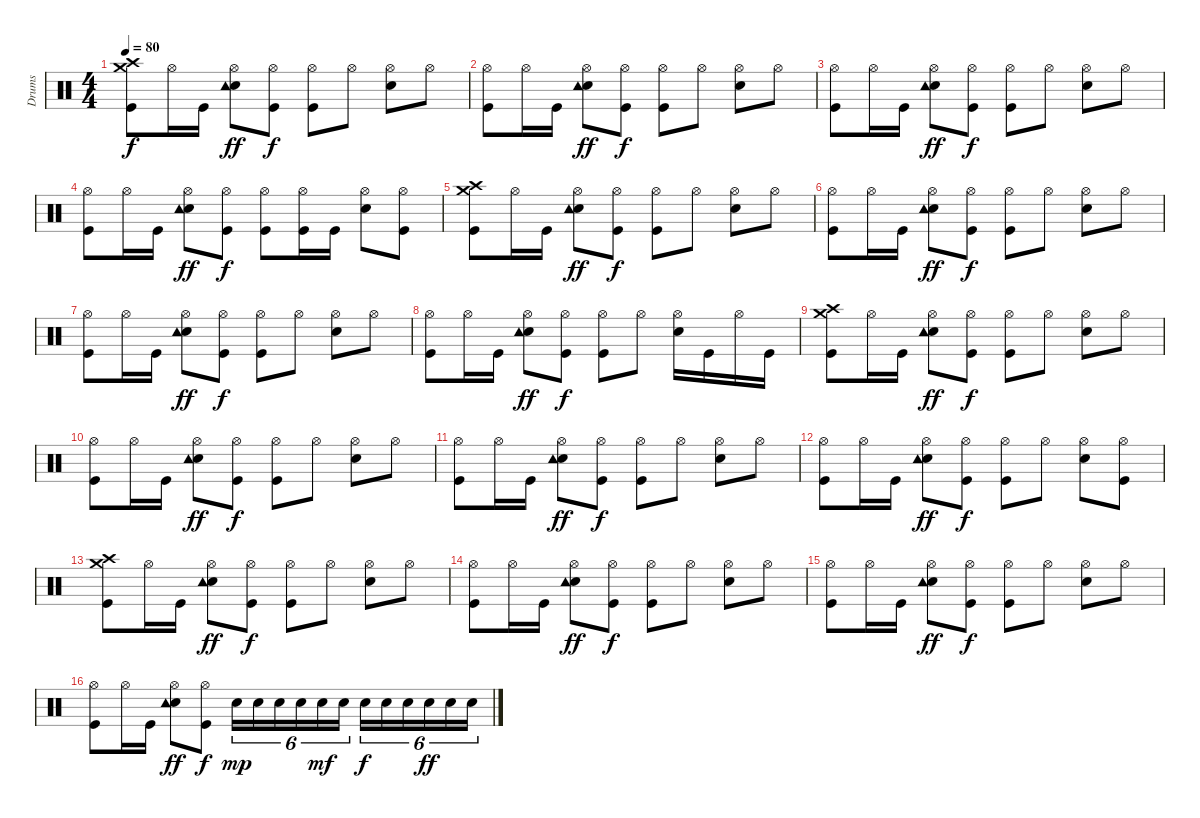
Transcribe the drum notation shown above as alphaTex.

\track ("Drums" "Drums") {instrument percussion}
\staff {score}
\articulation defaults
\ts (4 4)
\tempo 80
\clef neutral
\ks c
("Crash high (hit)" "Crash medium (hit)" "Kick (hit)").8{dy f} "Hi-Hat (open)".16 "Kick (hit)".16 ("Electric Snare (hit)" "Hi-Hat (open)" "Tambourine (hit)").8{dy ff} ("Hi-Hat (open)" "Kick (hit)").8{dy f} ("Hi-Hat (open)" "Kick (hit)").8 "Hi-Hat (open)".8 ("Electric Snare (hit)" "Hi-Hat (open)").8 "Hi-Hat (open)".8 |
("Hi-Hat (open)" "Kick (hit)").8 "Hi-Hat (open)".16 "Kick (hit)".16 ("Electric Snare (hit)" "Hi-Hat (open)" "Tambourine (hit)").8{dy ff} ("Hi-Hat (open)" "Kick (hit)").8{dy f} ("Hi-Hat (open)" "Kick (hit)").8 "Hi-Hat (open)".8 ("Electric Snare (hit)" "Hi-Hat (open)").8 "Hi-Hat (open)".8 |
("Hi-Hat (open)" "Kick (hit)").8 "Hi-Hat (open)".16 "Kick (hit)".16 ("Electric Snare (hit)" "Hi-Hat (open)" "Tambourine (hit)").8{dy ff} ("Hi-Hat (open)" "Kick (hit)").8{dy f} ("Hi-Hat (open)" "Kick (hit)").8 "Hi-Hat (open)".8 ("Electric Snare (hit)" "Hi-Hat (open)").8 "Hi-Hat (open)".8 |
("Hi-Hat (open)" "Kick (hit)").8 "Hi-Hat (open)".16 "Kick (hit)".16 ("Electric Snare (hit)" "Hi-Hat (open)" "Tambourine (hit)").8{dy ff} ("Hi-Hat (open)" "Kick (hit)").8{dy f} ("Hi-Hat (open)" "Kick (hit)").8 ("Hi-Hat (open)" "Kick (hit)").16 "Kick (hit)".16 ("Electric Snare (hit)" "Hi-Hat (open)").8 ("Hi-Hat (open)" "Kick (hit)").8 |
("Crash high (hit)" "Crash medium (hit)" "Kick (hit)").8 "Hi-Hat (open)".16 "Kick (hit)".16 ("Electric Snare (hit)" "Hi-Hat (open)" "Tambourine (hit)").8{dy ff} ("Hi-Hat (open)" "Kick (hit)").8{dy f} ("Hi-Hat (open)" "Kick (hit)").8 "Hi-Hat (open)".8 ("Electric Snare (hit)" "Hi-Hat (open)").8 "Hi-Hat (open)".8 |
("Hi-Hat (open)" "Kick (hit)").8 "Hi-Hat (open)".16 "Kick (hit)".16 ("Electric Snare (hit)" "Hi-Hat (open)" "Tambourine (hit)").8{dy ff} ("Hi-Hat (open)" "Kick (hit)").8{dy f} ("Hi-Hat (open)" "Kick (hit)").8 "Hi-Hat (open)".8 ("Electric Snare (hit)" "Hi-Hat (open)").8 "Hi-Hat (open)".8 |
("Hi-Hat (open)" "Kick (hit)").8 "Hi-Hat (open)".16 "Kick (hit)".16 ("Electric Snare (hit)" "Hi-Hat (open)" "Tambourine (hit)").8{dy ff} ("Hi-Hat (open)" "Kick (hit)").8{dy f} ("Hi-Hat (open)" "Kick (hit)").8 "Hi-Hat (open)".8 ("Electric Snare (hit)" "Hi-Hat (open)").8 "Hi-Hat (open)".8 |
("Hi-Hat (open)" "Kick (hit)").8 "Hi-Hat (open)".16 "Kick (hit)".16 ("Electric Snare (hit)" "Hi-Hat (open)" "Tambourine (hit)").8{dy ff} ("Hi-Hat (open)" "Kick (hit)").8{dy f} ("Hi-Hat (open)" "Kick (hit)").8 "Hi-Hat (open)".8 ("Electric Snare (hit)" "Hi-Hat (open)").16 "Kick (hit)".16 "Hi-Hat (open)".16 "Kick (hit)".16 |
("Crash high (hit)" "Crash medium (hit)" "Kick (hit)").8 "Hi-Hat (open)".16 "Kick (hit)".16 ("Electric Snare (hit)" "Hi-Hat (open)" "Tambourine (hit)").8{dy ff} ("Hi-Hat (open)" "Kick (hit)").8{dy f} ("Hi-Hat (open)" "Kick (hit)").8 "Hi-Hat (open)".8 ("Electric Snare (hit)" "Hi-Hat (open)").8 "Hi-Hat (open)".8 |
("Hi-Hat (open)" "Kick (hit)").8 "Hi-Hat (open)".16 "Kick (hit)".16 ("Electric Snare (hit)" "Hi-Hat (open)" "Tambourine (hit)").8{dy ff} ("Hi-Hat (open)" "Kick (hit)").8{dy f} ("Hi-Hat (open)" "Kick (hit)").8 "Hi-Hat (open)".8 ("Electric Snare (hit)" "Hi-Hat (open)").8 "Hi-Hat (open)".8 |
("Hi-Hat (open)" "Kick (hit)").8 "Hi-Hat (open)".16 "Kick (hit)".16 ("Electric Snare (hit)" "Hi-Hat (open)" "Tambourine (hit)").8{dy ff} ("Hi-Hat (open)" "Kick (hit)").8{dy f} ("Hi-Hat (open)" "Kick (hit)").8 "Hi-Hat (open)".8 ("Electric Snare (hit)" "Hi-Hat (open)").8 "Hi-Hat (open)".8 |
("Hi-Hat (open)" "Kick (hit)").8 "Hi-Hat (open)".16 "Kick (hit)".16 ("Electric Snare (hit)" "Hi-Hat (open)" "Tambourine (hit)").8{dy ff} ("Hi-Hat (open)" "Kick (hit)").8{dy f} ("Hi-Hat (open)" "Kick (hit)").8 "Hi-Hat (open)".8 ("Electric Snare (hit)" "Hi-Hat (open)").8 ("Hi-Hat (open)" "Kick (hit)").8 |
("Crash high (hit)" "Crash medium (hit)" "Kick (hit)").8 "Hi-Hat (open)".16 "Kick (hit)".16 ("Electric Snare (hit)" "Hi-Hat (open)" "Tambourine (hit)").8{dy ff} ("Hi-Hat (open)" "Kick (hit)").8{dy f} ("Hi-Hat (open)" "Kick (hit)").8 "Hi-Hat (open)".8 ("Electric Snare (hit)" "Hi-Hat (open)").8 "Hi-Hat (open)".8 |
("Hi-Hat (open)" "Kick (hit)").8 "Hi-Hat (open)".16 "Kick (hit)".16 ("Electric Snare (hit)" "Hi-Hat (open)" "Tambourine (hit)").8{dy ff} ("Hi-Hat (open)" "Kick (hit)").8{dy f} ("Hi-Hat (open)" "Kick (hit)").8 "Hi-Hat (open)".8 ("Electric Snare (hit)" "Hi-Hat (open)").8 "Hi-Hat (open)".8 |
("Hi-Hat (open)" "Kick (hit)").8 "Hi-Hat (open)".16 "Kick (hit)".16 ("Electric Snare (hit)" "Hi-Hat (open)" "Tambourine (hit)").8{dy ff} ("Hi-Hat (open)" "Kick (hit)").8{dy f} ("Hi-Hat (open)" "Kick (hit)").8 "Hi-Hat (open)".8 ("Electric Snare (hit)" "Hi-Hat (open)").8 "Hi-Hat (open)".8 |
("Hi-Hat (open)" "Kick (hit)").8 "Hi-Hat (open)".16 "Kick (hit)".16 ("Electric Snare (hit)" "Hi-Hat (open)" "Tambourine (hit)").8{dy ff} ("Hi-Hat (open)" "Kick (hit)").8{dy f} "Electric Snare (hit)".16{tu (6 4) dy mp} "Electric Snare (hit)".16{tu (6 4)} "Electric Snare (hit)".16{tu (6 4)} "Electric Snare (hit)".16{tu (6 4)} "Electric Snare (hit)".16{tu (6 4) dy mf} "Electric Snare (hit)".16{tu (6 4)} "Electric Snare (hit)".16{tu (6 4) dy f} "Electric Snare (hit)".16{tu (6 4)} "Electric Snare (hit)".16{tu (6 4)} "Electric Snare (hit)".16{tu (6 4) dy ff} "Electric Snare (hit)".16{tu (6 4)} "Electric Snare (hit)".16{tu (6 4)}
